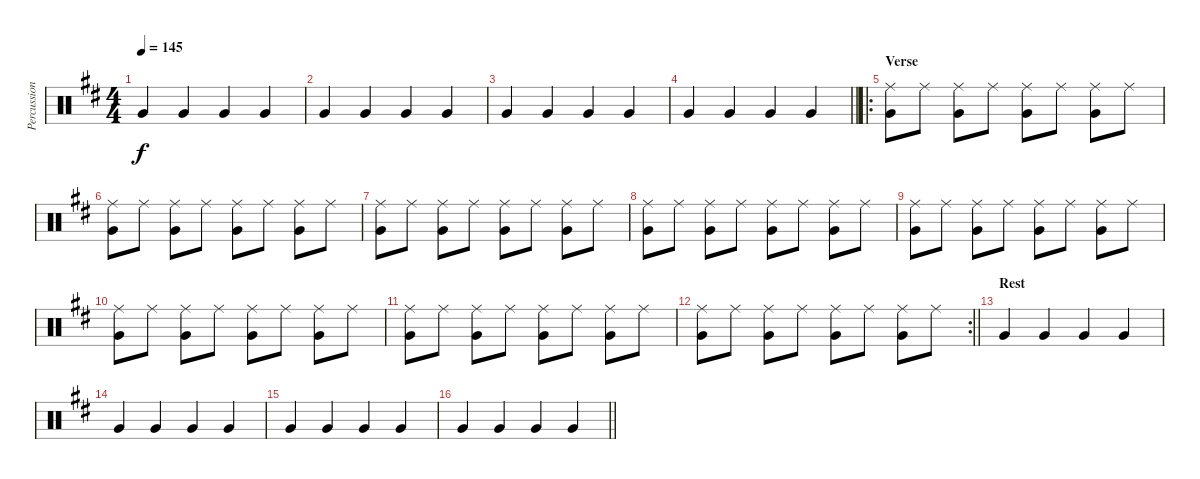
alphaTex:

\track ("Percussion" "Percussion") {instrument percussion}
\staff {score}
\articulation defaults
\ts (4 4)
\tempo 145
\clef neutral
\ks d "Very Low Tom (hit)".4{dy f} "Very Low Tom (hit)".4 "Very Low Tom (hit)".4 "Very Low Tom (hit)".4
|
"Very Low Tom (hit)".4 "Very Low Tom (hit)".4 "Very Low Tom (hit)".4 "Very Low Tom (hit)".4 |
"Very Low Tom (hit)".4 "Very Low Tom (hit)".4 "Very Low Tom (hit)".4 "Very Low Tom (hit)".4 |
\barLineRight lightlight "Very Low Tom (hit)".4 "Very Low Tom (hit)".4 "Very Low Tom (hit)".4 "Very Low Tom (hit)".4
|
\ro
\section ("" "Verse")
("Very Low Tom (hit)" "Ride (middle)").8 "Ride (middle)".8 ("Very Low Tom (hit)" "Ride (middle)").8 "Ride (middle)".8 ("Very Low Tom (hit)" "Ride (middle)").8 "Ride (middle)".8 ("Very Low Tom (hit)" "Ride (middle)").8 "Ride (middle)".8 |
("Very Low Tom (hit)" "Ride (middle)").8 "Ride (middle)".8 ("Very Low Tom (hit)" "Ride (middle)").8 "Ride (middle)".8 ("Very Low Tom (hit)" "Ride (middle)").8 "Ride (middle)".8 ("Very Low Tom (hit)" "Ride (middle)").8 "Ride (middle)".8 |
("Very Low Tom (hit)" "Ride (middle)").8 "Ride (middle)".8 ("Very Low Tom (hit)" "Ride (middle)").8 "Ride (middle)".8 ("Very Low Tom (hit)" "Ride (middle)").8 "Ride (middle)".8 ("Very Low Tom (hit)" "Ride (middle)").8 "Ride (middle)".8 |
("Very Low Tom (hit)" "Ride (middle)").8 "Ride (middle)".8 ("Very Low Tom (hit)" "Ride (middle)").8 "Ride (middle)".8 ("Very Low Tom (hit)" "Ride (middle)").8 "Ride (middle)".8 ("Very Low Tom (hit)" "Ride (middle)").8 "Ride (middle)".8 |
("Very Low Tom (hit)" "Ride (middle)").8 "Ride (middle)".8 ("Very Low Tom (hit)" "Ride (middle)").8 "Ride (middle)".8 ("Very Low Tom (hit)" "Ride (middle)").8 "Ride (middle)".8 ("Very Low Tom (hit)" "Ride (middle)").8 "Ride (middle)".8 |
("Very Low Tom (hit)" "Ride (middle)").8 "Ride (middle)".8 ("Very Low Tom (hit)" "Ride (middle)").8 "Ride (middle)".8 ("Very Low Tom (hit)" "Ride (middle)").8 "Ride (middle)".8 ("Very Low Tom (hit)" "Ride (middle)").8 "Ride (middle)".8 |
("Very Low Tom (hit)" "Ride (middle)").8 "Ride (middle)".8 ("Very Low Tom (hit)" "Ride (middle)").8 "Ride (middle)".8 ("Very Low Tom (hit)" "Ride (middle)").8 "Ride (middle)".8 ("Very Low Tom (hit)" "Ride (middle)").8 "Ride (middle)".8 |
\rc 2
\barLineRight lightlight
("Very Low Tom (hit)" "Ride (middle)").8 "Ride (middle)".8 ("Very Low Tom (hit)" "Ride (middle)").8 "Ride (middle)".8 ("Very Low Tom (hit)" "Ride (middle)").8 "Ride (middle)".8 ("Very Low Tom (hit)" "Ride (middle)").8 "Ride (middle)".8 |
\section ("" "Rest")
"Very Low Tom (hit)".4 "Very Low Tom (hit)".4 "Very Low Tom (hit)".4 "Very Low Tom (hit)".4 |
"Very Low Tom (hit)".4 "Very Low Tom (hit)".4 "Very Low Tom (hit)".4 "Very Low Tom (hit)".4 |
"Very Low Tom (hit)".4 "Very Low Tom (hit)".4 "Very Low Tom (hit)".4 "Very Low Tom (hit)".4 |
\barLineRight lightlight "Very Low Tom (hit)".4 "Very Low Tom (hit)".4 "Very Low Tom (hit)".4 "Very Low Tom (hit)".4
